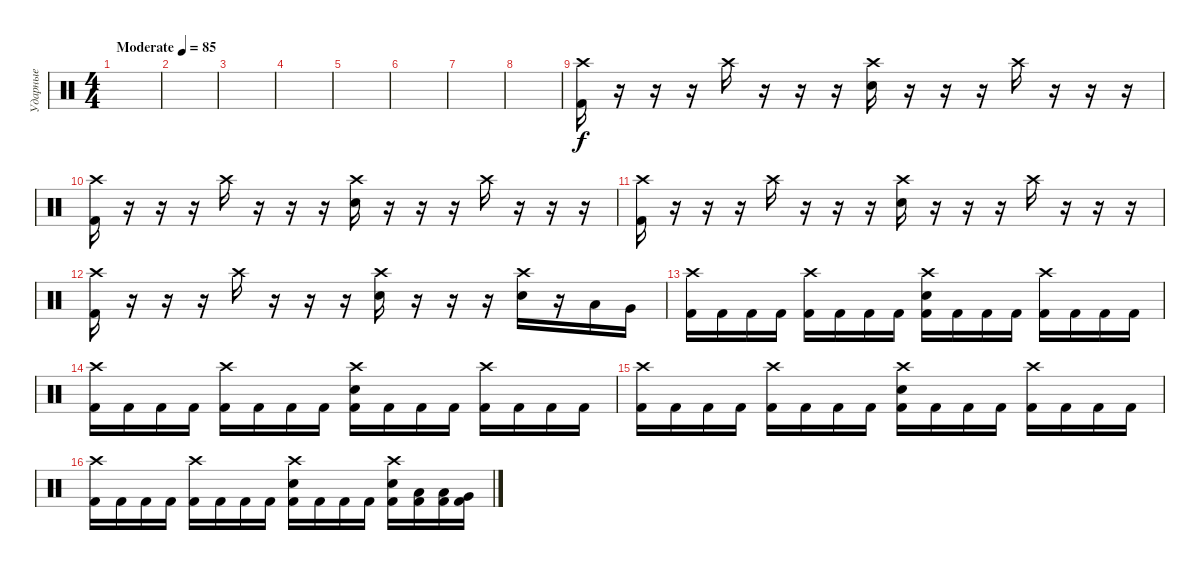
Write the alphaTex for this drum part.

\track ("Ударные" "Ударные") {instrument percussion}
\staff {score}
\articulation defaults
\ts (4 4)
\tempo (85 "Moderate")
\clef neutral
\ks c
|
|
|
|
|
|
|
|
("Crash high (hit)" "Kick (hit) 2").16 r.16 r.16 r.16 "Crash high (hit)".16 r.16 r.16 r.16 ("Crash high (hit)" "Electric Snare (hit)").16 r.16 r.16 r.16 "Crash high (hit)".16 r.16 r.16 r.16 |
("Crash high (hit)" "Kick (hit) 2").16 r.16 r.16 r.16 "Crash high (hit)".16 r.16 r.16 r.16 ("Crash high (hit)" "Electric Snare (hit)").16 r.16 r.16 r.16 "Crash high (hit)".16 r.16 r.16 r.16 |
("Crash high (hit)" "Kick (hit) 2").16 r.16 r.16 r.16 "Crash high (hit)".16 r.16 r.16 r.16 ("Crash high (hit)" "Electric Snare (hit)").16 r.16 r.16 r.16 "Crash high (hit)".16 r.16 r.16 r.16 |
("Crash high (hit)" "Kick (hit) 2").16 r.16 r.16 r.16 "Crash high (hit)".16 r.16 r.16 r.16 ("Crash high (hit)" "Electric Snare (hit)").16 r.16 r.16 r.16 ("Crash high (hit)" "Electric Snare (hit)").16 r.16 "Low Tom (hit)".16 "Very Low Tom (hit)".16 |
("Crash high (hit)" "Kick (hit) 2").16 "Kick (hit) 2".16 "Kick (hit) 2".16 "Kick (hit) 2".16 ("Crash high (hit)" "Kick (hit) 2").16 "Kick (hit) 2".16 "Kick (hit) 2".16 "Kick (hit) 2".16 ("Crash high (hit)" "Electric Snare (hit)" "Kick (hit) 2").16 "Kick (hit) 2".16 "Kick (hit) 2".16 "Kick (hit) 2".16 ("Crash high (hit)" "Kick (hit) 2").16 "Kick (hit) 2".16 "Kick (hit) 2".16 "Kick (hit) 2".16 |
("Crash high (hit)" "Kick (hit) 2").16 "Kick (hit) 2".16 "Kick (hit) 2".16 "Kick (hit) 2".16 ("Crash high (hit)" "Kick (hit) 2").16 "Kick (hit) 2".16 "Kick (hit) 2".16 "Kick (hit) 2".16 ("Crash high (hit)" "Electric Snare (hit)" "Kick (hit) 2").16 "Kick (hit) 2".16 "Kick (hit) 2".16 "Kick (hit) 2".16 ("Crash high (hit)" "Kick (hit) 2").16 "Kick (hit) 2".16 "Kick (hit) 2".16 "Kick (hit) 2".16 |
("Crash high (hit)" "Kick (hit) 2").16 "Kick (hit) 2".16 "Kick (hit) 2".16 "Kick (hit) 2".16 ("Crash high (hit)" "Kick (hit) 2").16 "Kick (hit) 2".16 "Kick (hit) 2".16 "Kick (hit) 2".16 ("Crash high (hit)" "Electric Snare (hit)" "Kick (hit) 2").16 "Kick (hit) 2".16 "Kick (hit) 2".16 "Kick (hit) 2".16 ("Crash high (hit)" "Kick (hit) 2").16 "Kick (hit) 2".16 "Kick (hit) 2".16 "Kick (hit) 2".16 |
("Crash high (hit)" "Kick (hit) 2").16 "Kick (hit) 2".16 "Kick (hit) 2".16 "Kick (hit) 2".16 ("Crash high (hit)" "Kick (hit) 2").16 "Kick (hit) 2".16 "Kick (hit) 2".16 "Kick (hit) 2".16 ("Crash high (hit)" "Electric Snare (hit)" "Kick (hit) 2").16 "Kick (hit) 2".16 "Kick (hit) 2".16 "Kick (hit) 2".16 ("Crash high (hit)" "Electric Snare (hit)" "Kick (hit) 2").16 ("Low Tom (hit)" "Kick (hit) 2").16 ("Low Tom (hit)" "Kick (hit) 2").16 ("Very Low Tom (hit)" "Kick (hit) 2").16
